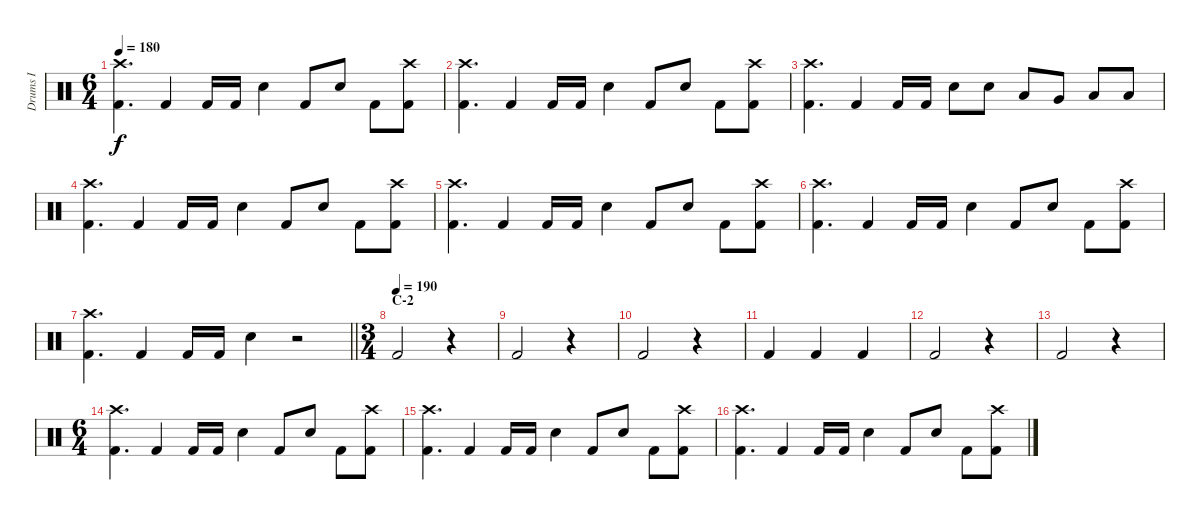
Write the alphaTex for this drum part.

\track ("Drums I" "Drums I") {instrument percussion}
\staff {score}
\articulation defaults
\ts (6 4)
\tempo 180
\clef neutral
\ks c
("Crash high (hit)" "Kick (hit) 2").4{d dy f} "Kick (hit) 2".4 "Kick (hit) 2".16 "Kick (hit) 2".16 "Electric Snare (hit)".4 "Kick (hit) 2".8 "Electric Snare (hit)".8 "Kick (hit) 2".8 ("Crash high (hit)" "Kick (hit) 2").8 |
("Crash high (hit)" "Kick (hit) 2").4{d} "Kick (hit) 2".4 "Kick (hit) 2".16 "Kick (hit) 2".16 "Electric Snare (hit)".4 "Kick (hit) 2".8 "Electric Snare (hit)".8 "Kick (hit) 2".8 ("Crash high (hit)" "Kick (hit) 2").8 |
("Crash high (hit)" "Kick (hit) 2").4{d} "Kick (hit) 2".4 "Kick (hit) 2".16 "Kick (hit) 2".16 "Electric Snare (hit)".8 "Electric Snare (hit)".8 "Low Tom (hit)".8 "Very Low Tom (hit)".8 "Low Floor Tom (hit)".8 "Low Floor Tom (hit)".8 |
("Crash high (hit)" "Kick (hit) 2").4{d} "Kick (hit) 2".4 "Kick (hit) 2".16 "Kick (hit) 2".16 "Electric Snare (hit)".4 "Kick (hit) 2".8 "Electric Snare (hit)".8 "Kick (hit) 2".8 ("Crash high (hit)" "Kick (hit) 2").8 |
("Crash high (hit)" "Kick (hit) 2").4{d} "Kick (hit) 2".4 "Kick (hit) 2".16 "Kick (hit) 2".16 "Electric Snare (hit)".4 "Kick (hit) 2".8 "Electric Snare (hit)".8 "Kick (hit) 2".8 ("Crash high (hit)" "Kick (hit) 2").8 |
("Crash high (hit)" "Kick (hit) 2").4{d} "Kick (hit) 2".4 "Kick (hit) 2".16 "Kick (hit) 2".16 "Electric Snare (hit)".4 "Kick (hit) 2".8 "Electric Snare (hit)".8 "Kick (hit) 2".8 ("Crash high (hit)" "Kick (hit) 2").8 |
\barLineRight lightlight
("Crash high (hit)" "Kick (hit) 2").4{d} "Kick (hit) 2".4 "Kick (hit) 2".16 "Kick (hit) 2".16 "Electric Snare (hit)".4 r.2 |
\ts (3 4)
\section ("" "C-2")
\tempo (190)
"Kick (hit) 2".2 r.4 |
"Kick (hit) 2".2 r.4 |
"Kick (hit) 2".2 r.4 |
"Kick (hit) 2".4 "Kick (hit) 2".4 "Kick (hit) 2".4 |
"Kick (hit) 2".2 r.4 |
"Kick (hit) 2".2 r.4 |
\ts (6 4)
("Crash high (hit)" "Kick (hit) 2").4{d} "Kick (hit) 2".4 "Kick (hit) 2".16 "Kick (hit) 2".16 "Electric Snare (hit)".4 "Kick (hit) 2".8 "Electric Snare (hit)".8 "Kick (hit) 2".8 ("Crash high (hit)" "Kick (hit) 2").8 |
("Crash high (hit)" "Kick (hit) 2").4{d} "Kick (hit) 2".4 "Kick (hit) 2".16 "Kick (hit) 2".16 "Electric Snare (hit)".4 "Kick (hit) 2".8 "Electric Snare (hit)".8 "Kick (hit) 2".8 ("Crash high (hit)" "Kick (hit) 2").8 |
("Crash high (hit)" "Kick (hit) 2").4{d} "Kick (hit) 2".4 "Kick (hit) 2".16 "Kick (hit) 2".16 "Electric Snare (hit)".4 "Kick (hit) 2".8 "Electric Snare (hit)".8 "Kick (hit) 2".8 ("Crash high (hit)" "Kick (hit) 2").8
